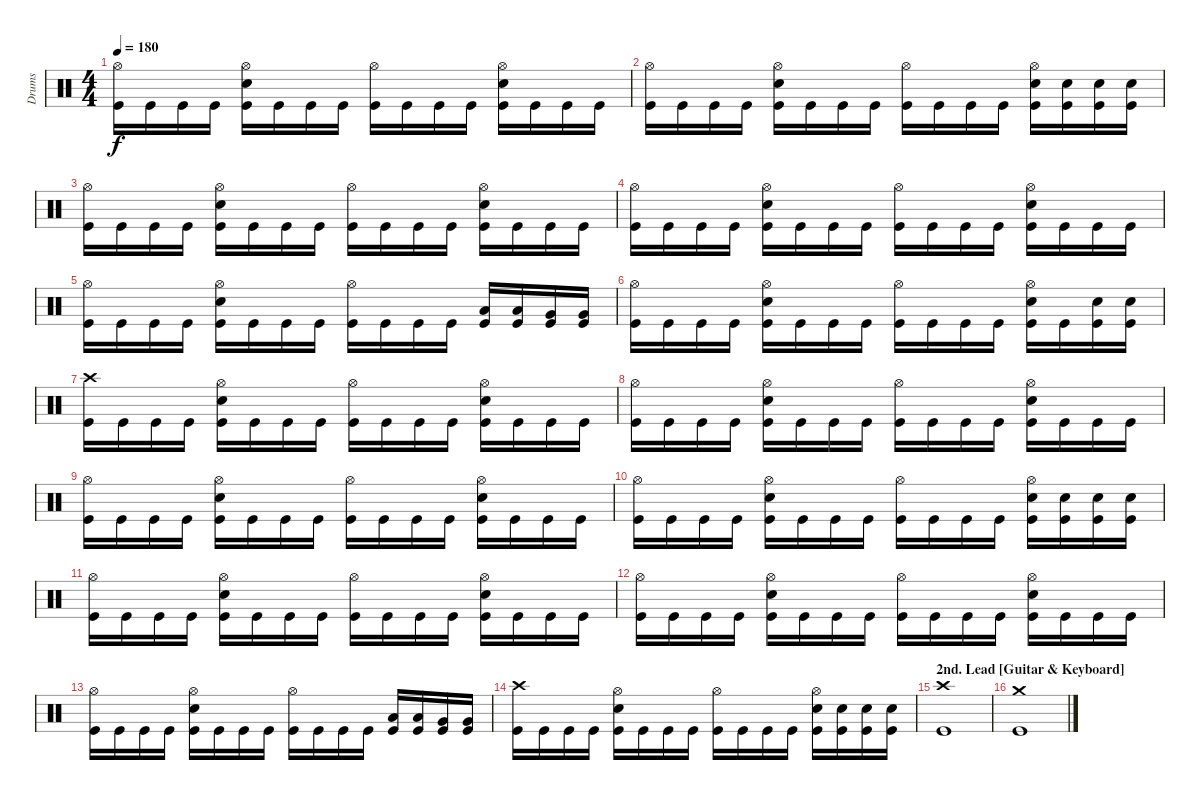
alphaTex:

\track ("Drums" "Drums") {instrument percussion}
\staff {score}
\articulation defaults
\ts (4 4)
\tempo 180
\clef neutral
\ks c
("Hi-Hat (open)" "Kick (hit)").16{dy f} "Kick (hit)".16 "Kick (hit)".16 "Kick (hit)".16 ("Hi-Hat (open)" "Electric Snare (hit)" "Kick (hit)").16 "Kick (hit)".16 "Kick (hit)".16 "Kick (hit)".16 ("Hi-Hat (open)" "Kick (hit)").16 "Kick (hit)".16 "Kick (hit)".16 "Kick (hit)".16 ("Hi-Hat (open)" "Electric Snare (hit)" "Kick (hit)").16 "Kick (hit)".16 "Kick (hit)".16 "Kick (hit)".16 |
("Hi-Hat (open)" "Kick (hit)").16 "Kick (hit)".16 "Kick (hit)".16 "Kick (hit)".16 ("Hi-Hat (open)" "Electric Snare (hit)" "Kick (hit)").16 "Kick (hit)".16 "Kick (hit)".16 "Kick (hit)".16 ("Hi-Hat (open)" "Kick (hit)").16 "Kick (hit)".16 "Kick (hit)".16 "Kick (hit)".16 ("Hi-Hat (open)" "Electric Snare (hit)" "Kick (hit)").16 ("Electric Snare (hit)" "Kick (hit)").16 ("Electric Snare (hit)" "Kick (hit)").16 ("Electric Snare (hit)" "Kick (hit)").16 |
("Hi-Hat (open)" "Kick (hit)").16 "Kick (hit)".16 "Kick (hit)".16 "Kick (hit)".16 ("Hi-Hat (open)" "Electric Snare (hit)" "Kick (hit)").16 "Kick (hit)".16 "Kick (hit)".16 "Kick (hit)".16 ("Hi-Hat (open)" "Kick (hit)").16 "Kick (hit)".16 "Kick (hit)".16 "Kick (hit)".16 ("Hi-Hat (open)" "Electric Snare (hit)" "Kick (hit)").16 "Kick (hit)".16 "Kick (hit)".16 "Kick (hit)".16 |
("Hi-Hat (open)" "Kick (hit)").16 "Kick (hit)".16 "Kick (hit)".16 "Kick (hit)".16 ("Hi-Hat (open)" "Electric Snare (hit)" "Kick (hit)").16 "Kick (hit)".16 "Kick (hit)".16 "Kick (hit)".16 ("Hi-Hat (open)" "Kick (hit)").16 "Kick (hit)".16 "Kick (hit)".16 "Kick (hit)".16 ("Hi-Hat (open)" "Electric Snare (hit)" "Kick (hit)").16 "Kick (hit)".16 "Kick (hit)".16 "Kick (hit)".16 |
("Hi-Hat (open)" "Kick (hit)").16 "Kick (hit)".16 "Kick (hit)".16 "Kick (hit)".16 ("Hi-Hat (open)" "Electric Snare (hit)" "Kick (hit)").16 "Kick (hit)".16 "Kick (hit)".16 "Kick (hit)".16 ("Hi-Hat (open)" "Kick (hit)").16 "Kick (hit)".16 "Kick (hit)".16 "Kick (hit)".16 ("Low Tom (hit)" "Kick (hit)").16 ("Low Tom (hit)" "Kick (hit)").16 ("Very Low Tom (hit)" "Kick (hit)").16 ("Very Low Tom (hit)" "Kick (hit)").16 |
("Hi-Hat (open)" "Kick (hit)").16 "Kick (hit)".16 "Kick (hit)".16 "Kick (hit)".16 ("Hi-Hat (open)" "Electric Snare (hit)" "Kick (hit)").16 "Kick (hit)".16 "Kick (hit)".16 "Kick (hit)".16 ("Hi-Hat (open)" "Kick (hit)").16 "Kick (hit)".16 "Kick (hit)".16 "Kick (hit)".16 ("Hi-Hat (open)" "Electric Snare (hit)" "Kick (hit)").16 "Kick (hit)".16 ("Electric Snare (hit)" "Kick (hit)").16 ("Electric Snare (hit)" "Kick (hit)").16 |
("Crash high (hit)" "Kick (hit)").16 "Kick (hit)".16 "Kick (hit)".16 "Kick (hit)".16 ("Hi-Hat (open)" "Electric Snare (hit)" "Kick (hit)").16 "Kick (hit)".16 "Kick (hit)".16 "Kick (hit)".16 ("Hi-Hat (open)" "Kick (hit)").16 "Kick (hit)".16 "Kick (hit)".16 "Kick (hit)".16 ("Hi-Hat (open)" "Electric Snare (hit)" "Kick (hit)").16 "Kick (hit)".16 "Kick (hit)".16 "Kick (hit)".16 |
("Hi-Hat (open)" "Kick (hit)").16 "Kick (hit)".16 "Kick (hit)".16 "Kick (hit)".16 ("Hi-Hat (open)" "Electric Snare (hit)" "Kick (hit)").16 "Kick (hit)".16 "Kick (hit)".16 "Kick (hit)".16 ("Hi-Hat (open)" "Kick (hit)").16 "Kick (hit)".16 "Kick (hit)".16 "Kick (hit)".16 ("Hi-Hat (open)" "Electric Snare (hit)" "Kick (hit)").16 "Kick (hit)".16 "Kick (hit)".16 "Kick (hit)".16 |
("Hi-Hat (open)" "Kick (hit)").16 "Kick (hit)".16 "Kick (hit)".16 "Kick (hit)".16 ("Hi-Hat (open)" "Electric Snare (hit)" "Kick (hit)").16 "Kick (hit)".16 "Kick (hit)".16 "Kick (hit)".16 ("Hi-Hat (open)" "Kick (hit)").16 "Kick (hit)".16 "Kick (hit)".16 "Kick (hit)".16 ("Hi-Hat (open)" "Electric Snare (hit)" "Kick (hit)").16 "Kick (hit)".16 "Kick (hit)".16 "Kick (hit)".16 |
("Hi-Hat (open)" "Kick (hit)").16 "Kick (hit)".16 "Kick (hit)".16 "Kick (hit)".16 ("Hi-Hat (open)" "Electric Snare (hit)" "Kick (hit)").16 "Kick (hit)".16 "Kick (hit)".16 "Kick (hit)".16 ("Hi-Hat (open)" "Kick (hit)").16 "Kick (hit)".16 "Kick (hit)".16 "Kick (hit)".16 ("Hi-Hat (open)" "Electric Snare (hit)" "Kick (hit)").16 ("Electric Snare (hit)" "Kick (hit)").16 ("Electric Snare (hit)" "Kick (hit)").16 ("Electric Snare (hit)" "Kick (hit)").16 |
("Hi-Hat (open)" "Kick (hit)").16 "Kick (hit)".16 "Kick (hit)".16 "Kick (hit)".16 ("Hi-Hat (open)" "Electric Snare (hit)" "Kick (hit)").16 "Kick (hit)".16 "Kick (hit)".16 "Kick (hit)".16 ("Hi-Hat (open)" "Kick (hit)").16 "Kick (hit)".16 "Kick (hit)".16 "Kick (hit)".16 ("Hi-Hat (open)" "Electric Snare (hit)" "Kick (hit)").16 "Kick (hit)".16 "Kick (hit)".16 "Kick (hit)".16 |
("Hi-Hat (open)" "Kick (hit)").16 "Kick (hit)".16 "Kick (hit)".16 "Kick (hit)".16 ("Hi-Hat (open)" "Electric Snare (hit)" "Kick (hit)").16 "Kick (hit)".16 "Kick (hit)".16 "Kick (hit)".16 ("Hi-Hat (open)" "Kick (hit)").16 "Kick (hit)".16 "Kick (hit)".16 "Kick (hit)".16 ("Hi-Hat (open)" "Electric Snare (hit)" "Kick (hit)").16 "Kick (hit)".16 "Kick (hit)".16 "Kick (hit)".16 |
("Hi-Hat (open)" "Kick (hit)").16 "Kick (hit)".16 "Kick (hit)".16 "Kick (hit)".16 ("Hi-Hat (open)" "Electric Snare (hit)" "Kick (hit)").16 "Kick (hit)".16 "Kick (hit)".16 "Kick (hit)".16 ("Hi-Hat (open)" "Kick (hit)").16 "Kick (hit)".16 "Kick (hit)".16 "Kick (hit)".16 ("Low Tom (hit)" "Kick (hit)").16 ("Low Tom (hit)" "Kick (hit)").16 ("Very Low Tom (hit)" "Kick (hit)").16 ("Very Low Tom (hit)" "Kick (hit)").16 |
("Crash high (hit)" "Kick (hit)").16 "Kick (hit)".16 "Kick (hit)".16 "Kick (hit)".16 ("Hi-Hat (open)" "Electric Snare (hit)" "Kick (hit)").16 "Kick (hit)".16 "Kick (hit)".16 "Kick (hit)".16 ("Hi-Hat (open)" "Kick (hit)").16 "Kick (hit)".16 "Kick (hit)".16 "Kick (hit)".16 ("Hi-Hat (open)" "Electric Snare (hit)" "Kick (hit)").16 ("Electric Snare (hit)" "Kick (hit)").16 ("Electric Snare (hit)" "Kick (hit)").16 ("Electric Snare (hit)" "Kick (hit)").16 |
\section ("" "2nd. Lead [Guitar & Keyboard]")
("Crash high (hit)" "Kick (hit)").1 |
("Crash medium (hit)" "Kick (hit)").1
